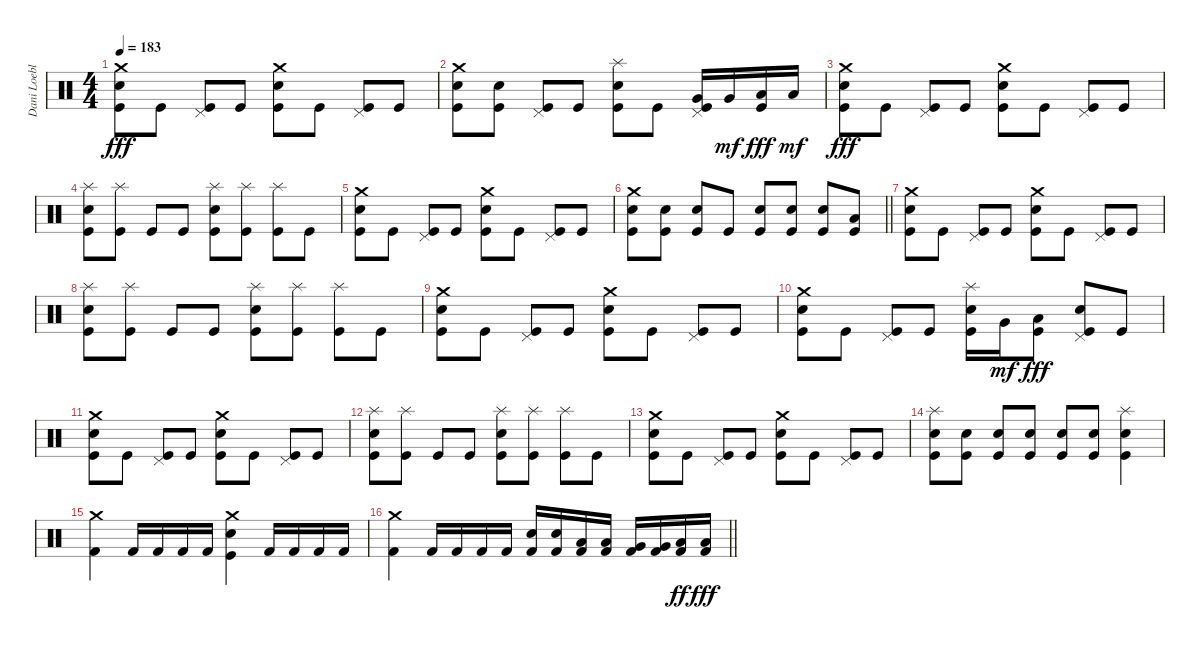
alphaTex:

\track ("Dani Loeble" "Dani Loebl") {instrument percussion}
\staff {score}
\articulation defaults
\ts (4 4)
\tempo 183
\clef neutral
\ks c
("Crash medium (hit)" "Electric Snare (hit)" "Kick (hit)").8{dy fff} "Kick (hit)".8 ("Pedal Hi-Hat (hit)" "Kick (hit)").8 "Kick (hit)".8 ("Crash medium (hit)" "Electric Snare (hit)" "Kick (hit)").8 "Kick (hit)".8 ("Pedal Hi-Hat (hit)" "Kick (hit)").8 "Kick (hit)".8 |
("Crash medium (hit)" "Electric Snare (hit)" "Kick (hit)").8 ("Electric Snare (hit)" "Kick (hit)").8 ("Pedal Hi-Hat (hit)" "Kick (hit)").8 "Kick (hit)".8 ("Splash (hit)" "Electric Snare (hit)" "Kick (hit)").8 "Kick (hit)".8 ("Pedal Hi-Hat (hit)" "Very Low Tom (hit)" "Kick (hit)").16 "Very Low Tom (hit)".16{dy mf} ("Low Floor Tom (hit)" "Kick (hit)").16{dy fff} "Low Floor Tom (hit)".16{dy mf} |
("Crash medium (hit)" "Electric Snare (hit)" "Kick (hit)").8{dy fff} "Kick (hit)".8 ("Pedal Hi-Hat (hit)" "Kick (hit)").8 "Kick (hit)".8 ("Crash medium (hit)" "Electric Snare (hit)" "Kick (hit)").8 "Kick (hit)".8 ("Pedal Hi-Hat (hit)" "Kick (hit)").8 "Kick (hit)".8 |
("Splash (hit)" "Electric Snare (hit)" "Kick (hit)").8 ("Splash (hit)" "Kick (hit)").8 "Kick (hit)".8 "Kick (hit)".8 ("Splash (hit)" "Electric Snare (hit)" "Kick (hit)").8 ("Splash (hit)" "Kick (hit)").8 ("Splash (hit)" "Kick (hit)").8 "Kick (hit)".8 |
("Crash medium (hit)" "Electric Snare (hit)" "Kick (hit)").8 "Kick (hit)".8 ("Pedal Hi-Hat (hit)" "Kick (hit)").8 "Kick (hit)".8 ("Crash medium (hit)" "Electric Snare (hit)" "Kick (hit)").8 "Kick (hit)".8 ("Pedal Hi-Hat (hit)" "Kick (hit)").8 "Kick (hit)".8 |
\barLineRight lightlight
("Crash medium (hit)" "Electric Snare (hit)" "Kick (hit)").8 ("Electric Snare (hit)" "Kick (hit)").8 ("Electric Snare (hit)" "Kick (hit)").8 "Kick (hit)".8 ("Electric Snare (hit)" "Kick (hit)").8 ("Electric Snare (hit)" "Kick (hit)").8 ("Electric Snare (hit)" "Kick (hit)").8 ("Low Floor Tom (hit)" "Kick (hit)").8 |
("Crash medium (hit)" "Electric Snare (hit)" "Kick (hit)").8 "Kick (hit)".8 ("Pedal Hi-Hat (hit)" "Kick (hit)").8 "Kick (hit)".8 ("Crash medium (hit)" "Electric Snare (hit)" "Kick (hit)").8 "Kick (hit)".8 ("Pedal Hi-Hat (hit)" "Kick (hit)").8 "Kick (hit)".8 |
("Splash (hit)" "Electric Snare (hit)" "Kick (hit)").8 ("Splash (hit)" "Kick (hit)").8 "Kick (hit)".8 "Kick (hit)".8 ("Splash (hit)" "Electric Snare (hit)" "Kick (hit)").8 ("Splash (hit)" "Kick (hit)").8 ("Splash (hit)" "Kick (hit)").8 "Kick (hit)".8 |
("Crash medium (hit)" "Electric Snare (hit)" "Kick (hit)").8 "Kick (hit)".8 ("Pedal Hi-Hat (hit)" "Kick (hit)").8 "Kick (hit)".8 ("Crash medium (hit)" "Electric Snare (hit)" "Kick (hit)").8 "Kick (hit)".8 ("Pedal Hi-Hat (hit)" "Kick (hit)").8 "Kick (hit)".8 |
("Crash medium (hit)" "Electric Snare (hit)" "Kick (hit)").8 "Kick (hit)".8 ("Pedal Hi-Hat (hit)" "Kick (hit)").8 "Kick (hit)".8 ("Splash (hit)" "Electric Snare (hit)" "Kick (hit)").16 "Very Low Tom (hit)".16{dy mf} ("Low Floor Tom (hit)" "Kick (hit)").8{dy fff} ("Pedal Hi-Hat (hit)" "Electric Snare (hit)" "Kick (hit)").8 "Kick (hit)".8 |
("Crash medium (hit)" "Electric Snare (hit)" "Kick (hit)").8 "Kick (hit)".8 ("Pedal Hi-Hat (hit)" "Kick (hit)").8 "Kick (hit)".8 ("Crash medium (hit)" "Electric Snare (hit)" "Kick (hit)").8 "Kick (hit)".8 ("Pedal Hi-Hat (hit)" "Kick (hit)").8 "Kick (hit)".8 |
("Splash (hit)" "Electric Snare (hit)" "Kick (hit)").8 ("Splash (hit)" "Kick (hit)").8 "Kick (hit)".8 "Kick (hit)".8 ("Splash (hit)" "Electric Snare (hit)" "Kick (hit)").8 ("Splash (hit)" "Kick (hit)").8 ("Splash (hit)" "Kick (hit)").8 "Kick (hit)".8 |
("Crash medium (hit)" "Electric Snare (hit)" "Kick (hit)").8 "Kick (hit)".8 ("Pedal Hi-Hat (hit)" "Kick (hit)").8 "Kick (hit)".8 ("Crash medium (hit)" "Electric Snare (hit)" "Kick (hit)").8 "Kick (hit)".8 ("Pedal Hi-Hat (hit)" "Kick (hit)").8 "Kick (hit)".8 |
("Splash (hit)" "Electric Snare (hit)" "Kick (hit)").8 ("Electric Snare (hit)" "Kick (hit)").8 ("Electric Snare (hit)" "Kick (hit)").8 ("Electric Snare (hit)" "Kick (hit)").8 ("Electric Snare (hit)" "Kick (hit)").8 ("Electric Snare (hit)" "Kick (hit)").8 ("Splash (hit)" "Electric Snare (hit)" "Kick (hit)").4 |
("Crash medium (hit)" "Kick (hit) 2").4 "Kick (hit) 2".16 "Kick (hit) 2".16 "Kick (hit) 2".16 "Kick (hit) 2".16 ("Crash medium (hit)" "Electric Snare (hit)" "Kick (hit)").4 "Kick (hit) 2".16 "Kick (hit) 2".16 "Kick (hit) 2".16 "Kick (hit) 2".16 |
\barLineRight lightlight
("Crash medium (hit)" "Kick (hit) 2").4 "Kick (hit) 2".16 "Kick (hit) 2".16 "Kick (hit) 2".16 "Kick (hit) 2".16 ("Electric Snare (hit)" "Kick (hit) 2").16 ("Electric Snare (hit)" "Kick (hit) 2").16 ("Low Tom (hit)" "Kick (hit) 2").16 ("Low Tom (hit)" "Kick (hit) 2").16 ("Very Low Tom (hit)" "Kick (hit) 2").16 ("Very Low Tom (hit)" "Kick (hit) 2").16 ("Low Floor Tom (hit)" "Kick (hit) 2").16{dy ff} ("Low Floor Tom (hit)" "Kick (hit) 2").16{dy fff}
